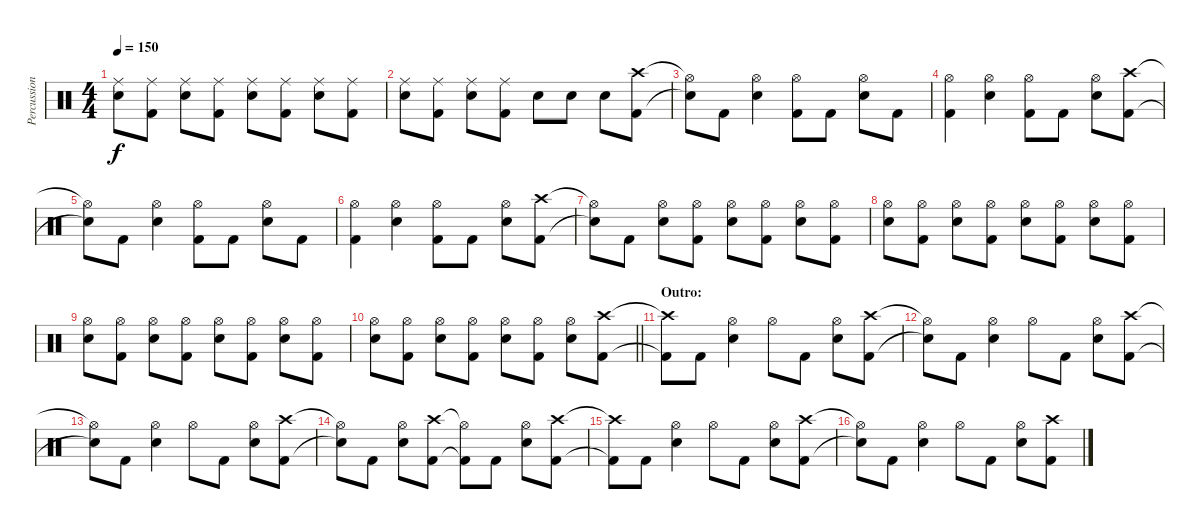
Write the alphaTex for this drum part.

\track ("Percussion" "Percussion") {instrument percussion}
\staff {score}
\articulation defaults
\ts (4 4)
\tempo 150
\clef neutral
\ks c
("Ride (middle)" "Snare (hit) 2").8{dy f} ("Ride (middle)" "Kick (hit) 2").8 ("Ride (middle)" "Snare (hit) 2").8 ("Ride (middle)" "Kick (hit) 2").8 ("Ride (middle)" "Snare (hit) 2").8 ("Ride (middle)" "Kick (hit) 2").8 ("Ride (middle)" "Snare (hit) 2").8 ("Ride (middle)" "Kick (hit) 2").8 |
("Ride (middle)" "Snare (hit) 2").8 ("Ride (middle)" "Kick (hit) 2").8 ("Ride (middle)" "Snare (hit) 2").8 ("Ride (middle)" "Kick (hit) 2").8 "Snare (hit) 2".8 "Snare (hit) 2".8 "Snare (hit) 2".8 ("Crash high (hit)" "Kick (hit) 2").8 |
("Hi-Hat (open)"{t} "Snare (hit)"{t}).8 "Kick (hit) 2".8 ("Hi-Hat (open)" "Snare (hit) 2").4 ("Hi-Hat (open)" "Kick (hit) 2").8 "Kick (hit) 2".8 ("Hi-Hat (open)" "Snare (hit) 2").8 "Kick (hit) 2".8 |
("Hi-Hat (open)" "Kick (hit) 2").4 ("Hi-Hat (open)" "Snare (hit) 2").4 ("Hi-Hat (open)" "Kick (hit) 2").8 "Kick (hit) 2".8 ("Hi-Hat (open)" "Snare (hit) 2").8 ("Crash high (hit)" "Kick (hit) 2").8 |
("Hi-Hat (open)"{t} "Snare (hit)"{t}).8 "Kick (hit) 2".8 ("Hi-Hat (open)" "Snare (hit) 2").4 ("Hi-Hat (open)" "Kick (hit) 2").8 "Kick (hit) 2".8 ("Hi-Hat (open)" "Snare (hit) 2").8 "Kick (hit) 2".8 |
("Hi-Hat (open)" "Kick (hit) 2").4 ("Hi-Hat (open)" "Snare (hit) 2").4 ("Hi-Hat (open)" "Kick (hit) 2").8 "Kick (hit) 2".8 ("Hi-Hat (open)" "Snare (hit) 2").8 ("Crash high (hit)" "Kick (hit) 2").8 |
("Hi-Hat (open)"{t} "Snare (hit)"{t}).8 "Kick (hit) 2".8 ("Hi-Hat (open)" "Snare (hit) 2").8 ("Hi-Hat (open)" "Kick (hit) 2").8 ("Hi-Hat (open)" "Snare (hit) 2").8 ("Hi-Hat (open)" "Kick (hit) 2").8 ("Hi-Hat (open)" "Snare (hit) 2").8 ("Hi-Hat (open)" "Kick (hit) 2").8 |
("Hi-Hat (open)" "Snare (hit) 2").8 ("Hi-Hat (open)" "Kick (hit) 2").8 ("Hi-Hat (open)" "Snare (hit) 2").8 ("Hi-Hat (open)" "Kick (hit) 2").8 ("Hi-Hat (open)" "Snare (hit) 2").8 ("Hi-Hat (open)" "Kick (hit) 2").8 ("Hi-Hat (open)" "Snare (hit) 2").8 ("Hi-Hat (open)" "Kick (hit) 2").8 |
("Hi-Hat (open)" "Snare (hit) 2").8 ("Hi-Hat (open)" "Kick (hit) 2").8 ("Hi-Hat (open)" "Snare (hit) 2").8 ("Hi-Hat (open)" "Kick (hit) 2").8 ("Hi-Hat (open)" "Snare (hit) 2").8 ("Hi-Hat (open)" "Kick (hit) 2").8 ("Hi-Hat (open)" "Snare (hit) 2").8 ("Hi-Hat (open)" "Kick (hit) 2").8 |
\barLineRight lightlight
("Hi-Hat (open)" "Snare (hit) 2").8 ("Hi-Hat (open)" "Kick (hit) 2").8 ("Hi-Hat (open)" "Snare (hit) 2").8 ("Hi-Hat (open)" "Kick (hit) 2").8 ("Hi-Hat (open)" "Snare (hit) 2").8 ("Hi-Hat (open)" "Kick (hit) 2").8 ("Hi-Hat (open)" "Snare (hit) 2").8 ("Crash high (hit)" "Kick (hit) 2").8 |
\section ("" "Outro:")
("Crash high (hit)"{t} "Kick (hit) 2"{t}).8 "Kick (hit) 2".8 ("Hi-Hat (open)" "Snare (hit) 2").4 "Hi-Hat (open)".8 "Kick (hit) 2".8 ("Hi-Hat (open)" "Snare (hit) 2").8 ("Crash high (hit)" "Kick (hit) 2").8 |
("Hi-Hat (open)"{t} "Snare (hit)"{t}).8 "Kick (hit) 2".8 ("Hi-Hat (open)" "Snare (hit) 2").4 "Hi-Hat (open)".8 "Kick (hit) 2".8 ("Hi-Hat (open)" "Snare (hit) 2").8 ("Crash high (hit)" "Kick (hit) 2").8 |
("Hi-Hat (open)"{t} "Snare (hit)"{t}).8 "Kick (hit) 2".8 ("Hi-Hat (open)" "Snare (hit) 2").4 "Hi-Hat (open)".8 "Kick (hit) 2".8 ("Hi-Hat (open)" "Snare (hit) 2").8 ("Crash high (hit)" "Kick (hit) 2").8 |
("Hi-Hat (open)"{t} "Snare (hit)"{t}).8 "Kick (hit) 2".8 ("Hi-Hat (open)" "Snare (hit) 2").8 ("Crash high (hit)" "Kick (hit) 2").8 ("Hi-Hat (open)"{t} "Kick (hit) 2"{t}).8 "Kick (hit) 2".8 ("Hi-Hat (open)" "Snare (hit) 2").8 ("Crash high (hit)" "Kick (hit) 2").8 |
("Crash high (hit)"{t} "Kick (hit) 2"{t}).8 "Kick (hit) 2".8 ("Hi-Hat (open)" "Snare (hit) 2").4 "Hi-Hat (open)".8 "Kick (hit) 2".8 ("Hi-Hat (open)" "Snare (hit) 2").8 ("Crash high (hit)" "Kick (hit) 2").8 |
("Hi-Hat (open)"{t} "Snare (hit)"{t}).8 "Kick (hit) 2".8 ("Hi-Hat (open)" "Snare (hit) 2").4 "Hi-Hat (open)".8 "Kick (hit) 2".8 ("Hi-Hat (open)" "Snare (hit) 2").8 ("Crash high (hit)" "Kick (hit) 2").8
